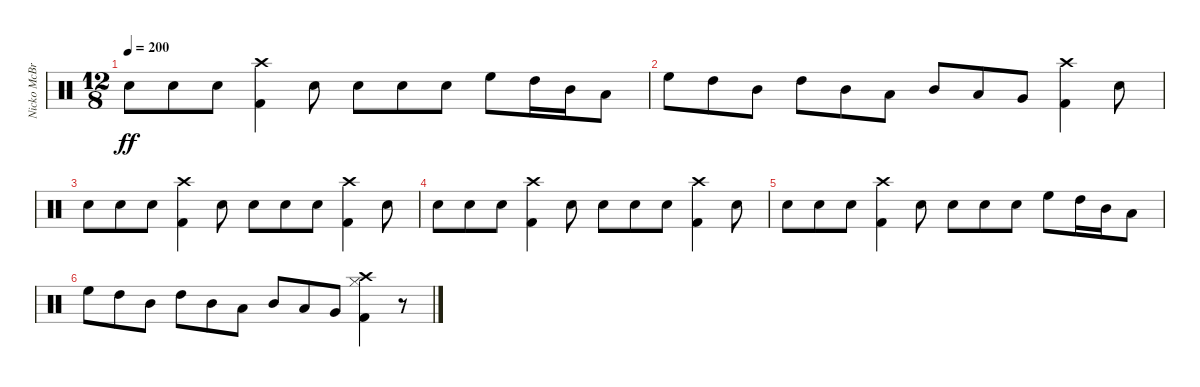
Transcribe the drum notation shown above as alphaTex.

\track ("Nicko McBrain" "Nicko McBr") {instrument percussion}
\staff {score}
\articulation defaults
\ts (12 8)
\tempo 200
\clef neutral
\ks c "Snare (hit) 2".8{dy ff} "Snare (hit) 2".8 "Snare (hit) 2".8
("Kick (hit) 2" "Crash high (hit)").4 "Snare (hit) 2".8 "Snare (hit) 2".8 "Snare (hit) 2".8 "Snare (hit) 2".8 "High Floor Tom (hit)".8 "High Tom (hit)".16 "Mid Tom (hit)".16 "Low Tom (hit)".8 |
"High Floor Tom (hit)".8 "High Tom (hit)".8 "Mid Tom (hit)".8 "High Tom (hit)".8 "Mid Tom (hit)".8 "Low Tom (hit)".8 "Mid Tom (hit)".8 "Low Tom (hit)".8 "Very Low Tom (hit)".8 ("Kick (hit) 2" "Crash high (hit)").4 "Snare (hit) 2".8 |
"Snare (hit) 2".8 "Snare (hit) 2".8 "Snare (hit) 2".8 ("Kick (hit) 2" "Crash high (hit)").4 "Snare (hit) 2".8 "Snare (hit) 2".8 "Snare (hit) 2".8 "Snare (hit) 2".8 ("Kick (hit) 2" "Crash high (hit)").4 "Snare (hit) 2".8 |
"Snare (hit) 2".8 "Snare (hit) 2".8 "Snare (hit) 2".8 ("Kick (hit) 2" "Crash high (hit)").4 "Snare (hit) 2".8 "Snare (hit) 2".8 "Snare (hit) 2".8 "Snare (hit) 2".8 ("Kick (hit) 2" "Crash high (hit)").4 "Snare (hit) 2".8 |
"Snare (hit) 2".8 "Snare (hit) 2".8 "Snare (hit) 2".8 ("Kick (hit) 2" "Crash high (hit)").4 "Snare (hit) 2".8 "Snare (hit) 2".8 "Snare (hit) 2".8 "Snare (hit) 2".8 "High Floor Tom (hit)".8 "High Tom (hit)".16 "Mid Tom (hit)".16 "Low Tom (hit)".8 |
"High Floor Tom (hit)".8 "High Tom (hit)".8 "Mid Tom (hit)".8 "High Tom (hit)".8 "Mid Tom (hit)".8 "Low Tom (hit)".8 "Mid Tom (hit)".8 "Low Tom (hit)".8 "Very Low Tom (hit)".8 ("Kick (hit) 2" "Hi-Hat (closed)" "Crash high (hit)").4 r.8
